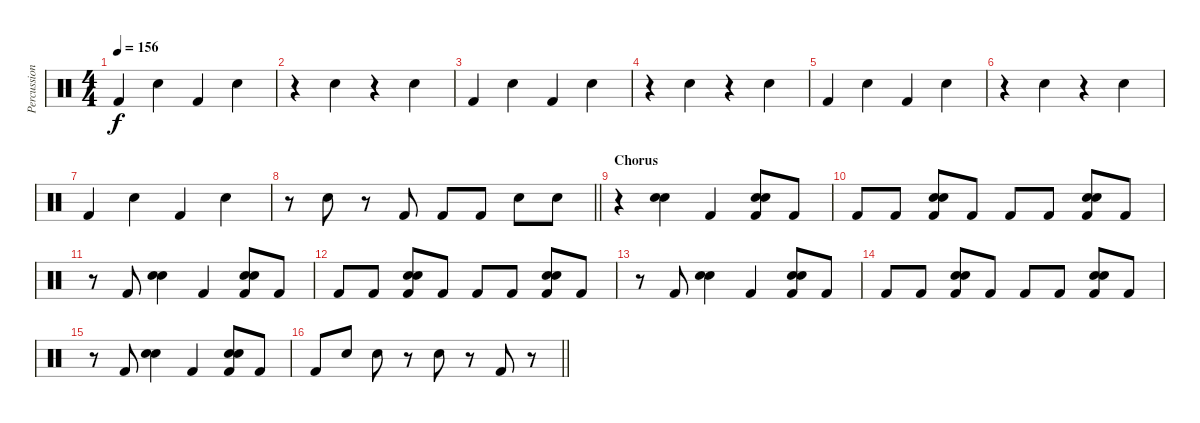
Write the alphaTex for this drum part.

\track ("Percussion" "Percussion") {instrument percussion}
\staff {score}
\articulation defaults
\ts (4 4)
\tempo 156
\clef neutral
\ks c "Kick (hit) 2".4{dy f} "Hand Clap (hit)".4 "Kick (hit) 2".4 "Hand Clap (hit)".4
|
r.4 "Hand Clap (hit)".4 r.4 "Hand Clap (hit)".4 |
"Kick (hit) 2".4 "Hand Clap (hit)".4 "Kick (hit) 2".4 "Hand Clap (hit)".4 |
r.4 "Hand Clap (hit)".4 r.4 "Hand Clap (hit)".4 |
"Kick (hit) 2".4 "Hand Clap (hit)".4 "Kick (hit) 2".4 "Hand Clap (hit)".4 |
r.4 "Hand Clap (hit)".4 r.4 "Hand Clap (hit)".4 |
"Kick (hit) 2".4 "Hand Clap (hit)".4 "Kick (hit) 2".4 "Hand Clap (hit)".4 |
\barLineRight lightlight
r.8 "Electric Snare (hit)".8 r.8 "Kick (hit) 2".8 "Kick (hit) 2".8 "Kick (hit) 2".8 "Electric Snare (hit)".8 "Electric Snare (hit)".8 |
\section ("" "Chorus")
r.4 ("Hand Clap (hit)" "Electric Snare (hit)").4 "Kick (hit) 2".4 ("Hand Clap (hit)" "Electric Snare (hit)" "Kick (hit) 2").8 "Kick (hit) 2".8 |
"Kick (hit) 2".8 "Kick (hit) 2".8 ("Hand Clap (hit)" "Electric Snare (hit)" "Kick (hit) 2").8 "Kick (hit) 2".8 "Kick (hit) 2".8 "Kick (hit) 2".8 ("Hand Clap (hit)" "Electric Snare (hit)" "Kick (hit) 2").8 "Kick (hit) 2".8 |
r.8 "Kick (hit) 2".8 ("Hand Clap (hit)" "Electric Snare (hit)").4 "Kick (hit) 2".4 ("Hand Clap (hit)" "Electric Snare (hit)" "Kick (hit) 2").8 "Kick (hit) 2".8 |
"Kick (hit) 2".8 "Kick (hit) 2".8 ("Hand Clap (hit)" "Electric Snare (hit)" "Kick (hit) 2").8 "Kick (hit) 2".8 "Kick (hit) 2".8 "Kick (hit) 2".8 ("Hand Clap (hit)" "Electric Snare (hit)" "Kick (hit) 2").8 "Kick (hit) 2".8 |
r.8 "Kick (hit) 2".8 ("Hand Clap (hit)" "Electric Snare (hit)").4 "Kick (hit) 2".4 ("Hand Clap (hit)" "Electric Snare (hit)" "Kick (hit) 2").8 "Kick (hit) 2".8 |
"Kick (hit) 2".8 "Kick (hit) 2".8 ("Hand Clap (hit)" "Electric Snare (hit)" "Kick (hit) 2").8 "Kick (hit) 2".8 "Kick (hit) 2".8 "Kick (hit) 2".8 ("Hand Clap (hit)" "Electric Snare (hit)" "Kick (hit) 2").8 "Kick (hit) 2".8 |
r.8 "Kick (hit) 2".8 ("Hand Clap (hit)" "Electric Snare (hit)").4 "Kick (hit) 2".4 ("Hand Clap (hit)" "Electric Snare (hit)" "Kick (hit) 2").8 "Kick (hit) 2".8 |
\barLineRight lightlight "Kick (hit) 2".8 "Electric Snare (hit)".8 "Electric Snare (hit)".8
r.8 "Electric Snare (hit)".8 r.8 "Kick (hit) 2".8 r.8
